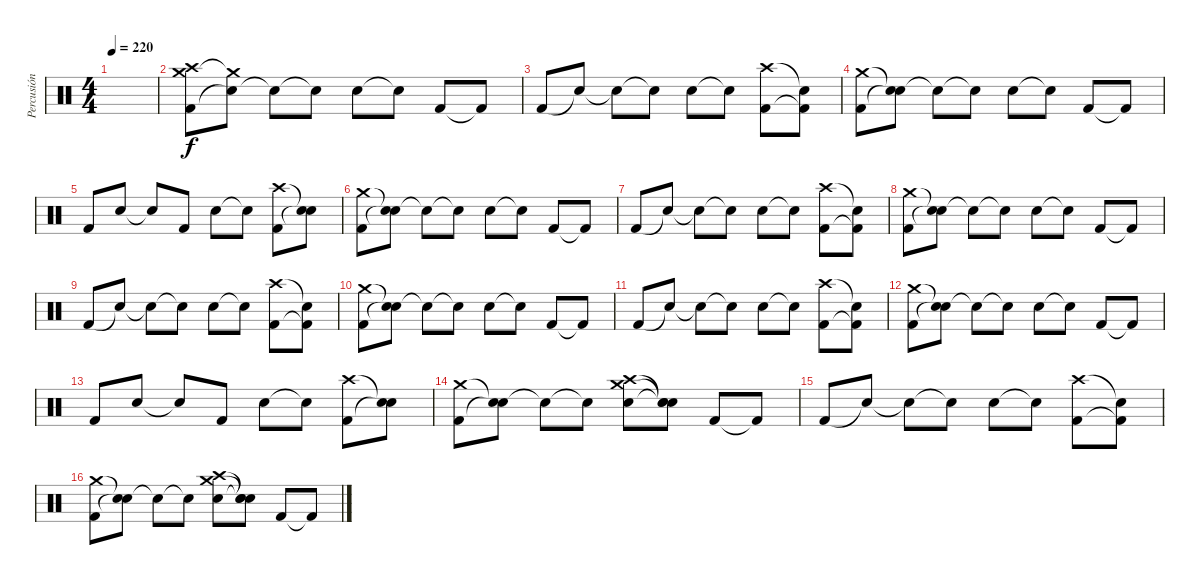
\track ("Percusión" "Percusión") {instrument percussion}
\staff {score}
\articulation defaults
\ts (4 4)
\tempo 220
\clef neutral
\ks c
|
("Kick (hit) 2" "Crash medium (hit)" "Crash high (hit)").8 ("Snare (hit)"{t} "Crash medium (hit)"{t}).8 "Snare (hit)"{t}.8 "Snare (hit)"{t}.8 "Snare (hit) 2".8 "Snare (hit)"{t}.8 "Kick (hit) 2".8 "Kick (hit) 2"{t}.8 |
"Kick (hit) 2".8 "Snare (hit)"{t}.8 "Snare (hit)"{t}.8 "Snare (hit)"{t}.8 "Snare (hit) 2".8 "Snare (hit)"{t}.8 ("Kick (hit) 2" "Crash high (hit)").8 ("Kick (hit) 2"{t} "Snare (hit)"{t}).8 |
("Kick (hit) 2" "Crash medium (hit)").8 ("Snare (hit)"{t} "Snare (hit)"{t}).8 "Snare (hit)"{t}.8 "Snare (hit)"{t}.8 "Snare (hit) 2".8 "Snare (hit)"{t}.8 "Kick (hit) 2".8 "Kick (hit) 2"{t}.8 |
"Kick (hit) 2".8 "Snare (hit) 2".8 "Snare (hit)"{t}.8 "Kick (hit) 2".8 "Snare (hit) 2".8 "Snare (hit)"{t}.8 ("Kick (hit) 2" "Crash high (hit)").8 ("Snare (hit)"{t} "Snare (hit)"{t}).8 |
("Kick (hit) 2" "Crash medium (hit)").8 ("Snare (hit)"{t} "Snare (hit)"{t}).8 "Snare (hit)"{t}.8 "Snare (hit)"{t}.8 "Snare (hit) 2".8 "Snare (hit)"{t}.8 "Kick (hit) 2".8 "Kick (hit) 2"{t}.8 |
"Kick (hit) 2".8 "Snare (hit)"{t}.8 "Snare (hit)"{t}.8 "Snare (hit)"{t}.8 "Snare (hit) 2".8 "Snare (hit)"{t}.8 ("Kick (hit) 2" "Crash high (hit)").8 ("Kick (hit) 2"{t} "Snare (hit)"{t}).8 |
("Kick (hit) 2" "Crash medium (hit)").8 ("Snare (hit)"{t} "Snare (hit)"{t}).8 "Snare (hit)"{t}.8 "Snare (hit)"{t}.8 "Snare (hit) 2".8 "Snare (hit)"{t}.8 "Kick (hit) 2".8 "Kick (hit) 2"{t}.8 |
"Kick (hit) 2".8 "Snare (hit)"{t}.8 "Snare (hit)"{t}.8 "Snare (hit)"{t}.8 "Snare (hit) 2".8 "Snare (hit)"{t}.8 ("Kick (hit) 2" "Crash high (hit)").8 ("Kick (hit) 2"{t} "Snare (hit)"{t}).8 |
("Kick (hit) 2" "Crash medium (hit)").8 ("Snare (hit)"{t} "Snare (hit)"{t}).8 "Snare (hit)"{t}.8 "Snare (hit)"{t}.8 "Snare (hit) 2".8 "Snare (hit)"{t}.8 "Kick (hit) 2".8 "Kick (hit) 2"{t}.8 |
"Kick (hit) 2".8 "Snare (hit)"{t}.8 "Snare (hit)"{t}.8 "Snare (hit)"{t}.8 "Snare (hit) 2".8 "Snare (hit)"{t}.8 ("Kick (hit) 2" "Crash high (hit)").8 ("Kick (hit) 2"{t} "Snare (hit)"{t}).8 |
("Kick (hit) 2" "Crash medium (hit)").8 ("Snare (hit)"{t} "Snare (hit)"{t}).8 "Snare (hit)"{t}.8 "Snare (hit)"{t}.8 "Snare (hit) 2".8 "Snare (hit)"{t}.8 "Kick (hit) 2".8 "Kick (hit) 2"{t}.8 |
"Kick (hit) 2".8 "Snare (hit) 2".8 "Snare (hit)"{t}.8 "Kick (hit) 2".8 "Snare (hit) 2".8 "Snare (hit)"{t}.8 ("Kick (hit) 2" "Crash high (hit)").8 ("Snare (hit)"{t} "Snare (hit)"{t}).8 |
("Kick (hit) 2" "Crash medium (hit)").8 ("Snare (hit)"{t} "Snare (hit)"{t}).8 "Snare (hit)"{t}.8 "Snare (hit)"{t}.8 ("Snare (hit) 2" "Crash high (hit)" "Crash medium (hit)").8 ("Snare (hit)"{t} "Snare (hit)"{t} "Snare (hit)"{t}).8 "Kick (hit) 2".8 "Kick (hit) 2"{t}.8 |
"Kick (hit) 2".8 "Snare (hit)"{t}.8 "Snare (hit)"{t}.8 "Snare (hit)"{t}.8 "Snare (hit) 2".8 "Snare (hit)"{t}.8 ("Kick (hit) 2" "Crash high (hit)").8 ("Kick (hit) 2"{t} "Snare (hit)"{t}).8 |
("Kick (hit) 2" "Crash medium (hit)").8 ("Snare (hit)"{t} "Snare (hit)"{t}).8 "Snare (hit)"{t}.8 "Snare (hit)"{t}.8 ("Snare (hit) 2" "Crash high (hit)" "Crash medium (hit)").8 ("Snare (hit)"{t} "Snare (hit)"{t} "Snare (hit)"{t}).8 "Kick (hit) 2".8 "Kick (hit) 2"{t}.8
